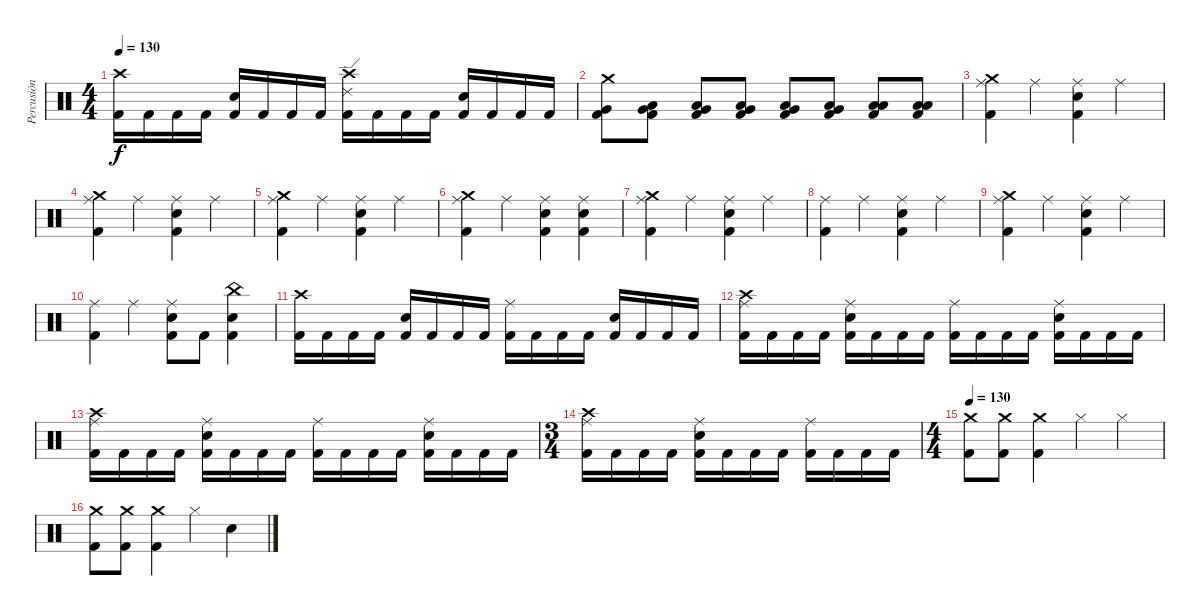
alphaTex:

\track ("Percusión" "Percusión") {instrument percussion}
\staff {score}
\articulation defaults
\ts (4 4)
\tempo 130
\clef neutral
\ks c
("Crash high (hit)" "Kick (hit) 2").16{dy f} "Kick (hit) 2".16 "Kick (hit) 2".16 "Kick (hit) 2".16 ("Snare (hit) 2" "Kick (hit) 2").16 "Kick (hit) 2".16 "Kick (hit) 2".16 "Kick (hit) 2".16 ("Ride (edge) 2" "Crash high (hit)" "Kick (hit) 2").16 "Kick (hit) 2".16 "Kick (hit) 2".16 "Kick (hit) 2".16 ("Snare (hit) 2" "Kick (hit) 2").16 "Kick (hit) 2".16 "Kick (hit) 2".16 "Kick (hit) 2".16 |
("Very Low Tom (hit)" "Crash medium (hit)" "Kick (hit) 2").8 ("Very Low Tom (hit)" "Low Floor Tom (hit)" "Kick (hit) 2").8 ("Very Low Tom (hit)" "Low Floor Tom (hit)" "Kick (hit) 2").8 ("Very Low Tom (hit)" "Low Floor Tom (hit)" "Kick (hit) 2").8 ("Low Tom (hit)" "Very Low Tom (hit)" "Kick (hit) 2").8 ("Low Tom (hit)" "Very Low Tom (hit)" "Kick (hit) 2").8 ("Low Floor Tom (hit)" "Low Floor Tom (hit)" "Kick (hit) 2").8 ("Low Floor Tom (hit)" "Low Floor Tom (hit)" "Kick (hit) 2").8 |
("Ride (middle)" "Crash medium (hit)" "Kick (hit) 2").4 "Ride (middle)".4 ("Ride (middle)" "Snare (hit) 2" "Kick (hit) 2").4 "Ride (middle)".4 |
("Ride (middle)" "Crash medium (hit)" "Kick (hit) 2").4 "Ride (middle)".4 ("Ride (middle)" "Snare (hit) 2" "Kick (hit) 2").4 "Ride (middle)".4 |
("Ride (middle)" "Crash medium (hit)" "Kick (hit) 2").4 "Ride (middle)".4 ("Ride (middle)" "Snare (hit) 2" "Kick (hit) 2").4 "Ride (middle)".4 |
("Ride (middle)" "Crash medium (hit)" "Kick (hit) 2").4 "Ride (middle)".4 ("Ride (middle)" "Snare (hit) 2" "Kick (hit) 2").4 ("Ride (middle)" "Snare (hit) 2" "Kick (hit) 2").4 |
("Ride (middle)" "Crash medium (hit)" "Kick (hit) 2").4 "Ride (middle)".4 ("Ride (middle)" "Snare (hit) 2" "Kick (hit) 2").4 "Ride (middle)".4 |
("Ride (middle)" "Kick (hit) 2").4 "Ride (middle)".4 ("Ride (middle)" "Snare (hit) 2" "Kick (hit) 2").4 "Ride (middle)".4 |
("Ride (middle)" "Crash medium (hit)" "Kick (hit) 2").4 "Ride (middle)".4 ("Ride (middle)" "Snare (hit) 2" "Kick (hit) 2").4 "Ride (middle)".4 |
("Ride (middle)" "Kick (hit) 2").4 "Ride (middle)".4 ("Ride (middle)" "Snare (hit) 2" "Kick (hit) 2").8 "Kick (hit) 2".8 ("Snare (hit) 2" "China (hit)" "Kick (hit) 2").4 |
("Crash high (hit)" "Kick (hit) 2").16 "Kick (hit) 2".16 "Kick (hit) 2".16 "Kick (hit) 2".16 ("Snare (hit) 2" "Kick (hit) 2").16 "Kick (hit) 2".16 "Kick (hit) 2".16 "Kick (hit) 2".16 ("Ride (middle)" "Kick (hit) 2").16 "Kick (hit) 2".16 "Kick (hit) 2".16 "Kick (hit) 2".16 ("Snare (hit) 2" "Kick (hit) 2").16 "Kick (hit) 2".16 "Kick (hit) 2".16 "Kick (hit) 2".16 |
("Ride (middle)" "Crash high (hit)" "Kick (hit) 2").16 "Kick (hit) 2".16 "Kick (hit) 2".16 "Kick (hit) 2".16 ("Ride (middle)" "Snare (hit) 2" "Kick (hit) 2").16 "Kick (hit) 2".16 "Kick (hit) 2".16 "Kick (hit) 2".16 ("Ride (middle)" "Kick (hit) 2").16 "Kick (hit) 2".16 "Kick (hit) 2".16 "Kick (hit) 2".16 ("Ride (middle)" "Snare (hit) 2" "Kick (hit) 2").16 "Kick (hit) 2".16 "Kick (hit) 2".16 "Kick (hit) 2".16 |
("Ride (middle)" "Crash high (hit)" "Kick (hit) 2").16 "Kick (hit) 2".16 "Kick (hit) 2".16 "Kick (hit) 2".16 ("Ride (middle)" "Snare (hit) 2" "Kick (hit) 2").16 "Kick (hit) 2".16 "Kick (hit) 2".16 "Kick (hit) 2".16 ("Ride (middle)" "Kick (hit) 2").16 "Kick (hit) 2".16 "Kick (hit) 2".16 "Kick (hit) 2".16 ("Ride (middle)" "Snare (hit) 2" "Kick (hit) 2").16 "Kick (hit) 2".16 "Kick (hit) 2".16 "Kick (hit) 2".16 |
\ts (3 4)
("Ride (middle)" "Crash high (hit)" "Kick (hit) 2").16 "Kick (hit) 2".16 "Kick (hit) 2".16 "Kick (hit) 2".16 ("Ride (middle)" "Snare (hit) 2" "Kick (hit) 2").16 "Kick (hit) 2".16 "Kick (hit) 2".16 "Kick (hit) 2".16 ("Ride (middle)" "Kick (hit) 2").16 "Kick (hit) 2".16 "Kick (hit) 2".16 "Kick (hit) 2".16 |
\ts (4 4)
\tempo 130
("Crash medium (hit)" "Kick (hit) 2").8 ("Crash medium (hit)" "Kick (hit) 2").8 ("Crash medium (hit)" "Kick (hit) 2").4 "Hi-Hat (closed)".4 "Hi-Hat (closed)".4 |
("Crash medium (hit)" "Kick (hit) 2").8 ("Crash medium (hit)" "Kick (hit) 2").8 ("Crash medium (hit)" "Kick (hit) 2").4 "Hi-Hat (closed)".4 "Snare (hit) 2".4
